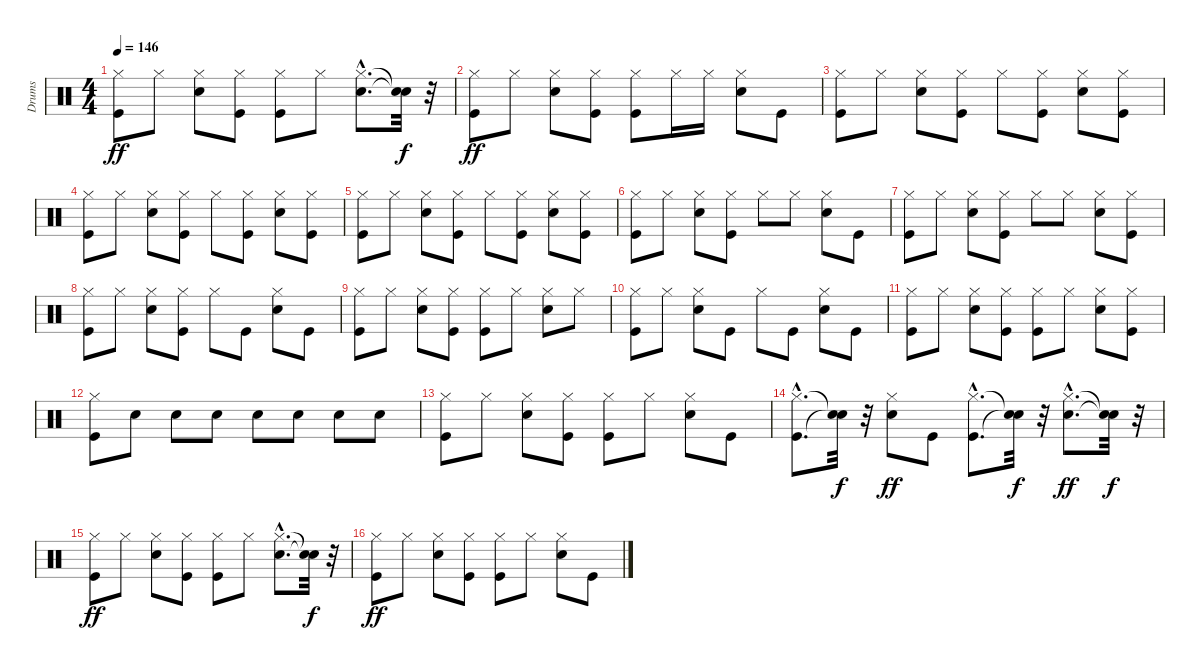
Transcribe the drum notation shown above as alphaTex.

\track ("Drums" "Drums") {instrument percussion}
\staff {score}
\articulation defaults
\ts (4 4)
\tempo 146
\clef neutral
\ks c
("Kick (hit)" "Hi-Hat (closed)").8{dy ff} "Hi-Hat (closed)".8 ("Snare (hit) 2" "Hi-Hat (closed)").8 ("Kick (hit)" "Hi-Hat (closed)").8 ("Kick (hit)" "Hi-Hat (closed)").8 "Hi-Hat (closed)".8 ("Snare (hit) 2"{hac} "Hi-Hat (closed)"{hac}).8{d} ("Snare (hit)"{t} "Snare (hit)"{t}).32{dy f} r.32 |
("Kick (hit)" "Hi-Hat (closed)").8{dy ff} "Hi-Hat (closed)".8 ("Snare (hit) 2" "Hi-Hat (closed)").8 ("Kick (hit)" "Hi-Hat (closed)").8 ("Kick (hit)" "Hi-Hat (closed)").8 "Hi-Hat (closed)".16 "Hi-Hat (closed)".16 ("Snare (hit) 2" "Hi-Hat (closed)").8 "Kick (hit)".8 |
("Kick (hit)" "Hi-Hat (closed)").8 "Hi-Hat (closed)".8 ("Snare (hit) 2" "Hi-Hat (closed)").8 ("Kick (hit)" "Hi-Hat (closed)").8 "Hi-Hat (closed)".8 ("Kick (hit)" "Hi-Hat (closed)").8 ("Snare (hit) 2" "Hi-Hat (closed)").8 ("Kick (hit)" "Hi-Hat (closed)").8 |
("Kick (hit)" "Hi-Hat (closed)").8 "Hi-Hat (closed)".8 ("Snare (hit) 2" "Hi-Hat (closed)").8 ("Kick (hit)" "Hi-Hat (closed)").8 "Hi-Hat (closed)".8 ("Kick (hit)" "Hi-Hat (closed)").8 ("Snare (hit) 2" "Hi-Hat (closed)").8 ("Kick (hit)" "Hi-Hat (closed)").8 |
("Kick (hit)" "Hi-Hat (closed)").8 "Hi-Hat (closed)".8 ("Snare (hit) 2" "Hi-Hat (closed)").8 ("Kick (hit)" "Hi-Hat (closed)").8 "Hi-Hat (closed)".8 ("Kick (hit)" "Hi-Hat (closed)").8 ("Snare (hit) 2" "Hi-Hat (closed)").8 ("Kick (hit)" "Hi-Hat (closed)").8 |
("Kick (hit)" "Hi-Hat (closed)").8 "Hi-Hat (closed)".8 ("Snare (hit) 2" "Hi-Hat (closed)").8 ("Kick (hit)" "Hi-Hat (closed)").8 "Hi-Hat (closed)".8 "Hi-Hat (closed)".8 ("Snare (hit) 2" "Hi-Hat (closed)").8 "Kick (hit)".8 |
("Kick (hit)" "Hi-Hat (closed)").8 "Hi-Hat (closed)".8 ("Snare (hit) 2" "Hi-Hat (closed)").8 ("Kick (hit)" "Hi-Hat (closed)").8 "Hi-Hat (closed)".8 "Hi-Hat (closed)".8 ("Snare (hit) 2" "Hi-Hat (closed)").8 ("Kick (hit)" "Hi-Hat (closed)").8 |
("Kick (hit)" "Hi-Hat (closed)").8 "Hi-Hat (closed)".8 ("Snare (hit) 2" "Hi-Hat (closed)").8 ("Kick (hit)" "Hi-Hat (closed)").8 "Hi-Hat (closed)".8 "Kick (hit)".8 ("Snare (hit) 2" "Hi-Hat (closed)").8 "Kick (hit)".8 |
("Kick (hit)" "Hi-Hat (closed)").8 "Hi-Hat (closed)".8 ("Snare (hit) 2" "Hi-Hat (closed)").8 ("Kick (hit)" "Hi-Hat (closed)").8 ("Kick (hit)" "Hi-Hat (closed)").8 "Hi-Hat (closed)".8 ("Snare (hit) 2" "Hi-Hat (closed)").8 "Hi-Hat (closed)".8 |
("Kick (hit)" "Hi-Hat (closed)").8 "Hi-Hat (closed)".8 ("Snare (hit) 2" "Hi-Hat (closed)").8 "Kick (hit)".8 "Hi-Hat (closed)".8 "Kick (hit)".8 ("Snare (hit) 2" "Hi-Hat (closed)").8 "Kick (hit)".8 |
("Kick (hit)" "Hi-Hat (closed)").8 "Hi-Hat (closed)".8 ("Snare (hit) 2" "Hi-Hat (closed)").8 ("Kick (hit)" "Hi-Hat (closed)").8 ("Kick (hit)" "Hi-Hat (closed)").8 "Hi-Hat (closed)".8 ("Snare (hit) 2" "Hi-Hat (closed)").8 ("Kick (hit)" "Hi-Hat (closed)").8 |
("Kick (hit)" "Hi-Hat (closed)").8 "Snare (hit) 2".8 "Snare (hit) 2".8 "Snare (hit) 2".8 "Snare (hit) 2".8 "Snare (hit) 2".8 "Snare (hit) 2".8 "Snare (hit) 2".8 |
("Kick (hit)" "Hi-Hat (closed)").8 "Hi-Hat (closed)".8 ("Snare (hit) 2" "Hi-Hat (closed)").8 ("Kick (hit)" "Hi-Hat (closed)").8 ("Kick (hit)" "Hi-Hat (closed)").8 "Hi-Hat (closed)".8 ("Snare (hit) 2" "Hi-Hat (closed)").8 "Kick (hit)".8 |
("Kick (hit)"{hac} "Hi-Hat (closed)"{hac}).8{d} ("Snare (hit)"{t} "Snare (hit)"{t}).32{dy f} r.32 ("Snare (hit) 2" "Hi-Hat (closed)").8{dy ff} "Kick (hit)".8 ("Kick (hit)"{hac} "Hi-Hat (closed)"{hac}).8{d} ("Snare (hit)"{t} "Snare (hit)"{t}).32{dy f} r.32 ("Snare (hit) 2"{hac} "Hi-Hat (closed)"{hac}).8{d dy ff} ("Snare (hit)"{t} "Snare (hit)"{t}).32{dy f} r.32 |
("Kick (hit)" "Hi-Hat (closed)").8{dy ff} "Hi-Hat (closed)".8 ("Snare (hit) 2" "Hi-Hat (closed)").8 ("Kick (hit)" "Hi-Hat (closed)").8 ("Kick (hit)" "Hi-Hat (closed)").8 "Hi-Hat (closed)".8 ("Snare (hit) 2"{hac} "Hi-Hat (closed)"{hac}).8{d} ("Snare (hit)"{t} "Snare (hit)"{t}).32{dy f} r.32 |
("Kick (hit)" "Hi-Hat (closed)").8{dy ff} "Hi-Hat (closed)".8 ("Snare (hit) 2" "Hi-Hat (closed)").8 ("Kick (hit)" "Hi-Hat (closed)").8 ("Kick (hit)" "Hi-Hat (closed)").8 "Hi-Hat (closed)".8 ("Snare (hit) 2" "Hi-Hat (closed)").8 "Kick (hit)".8
